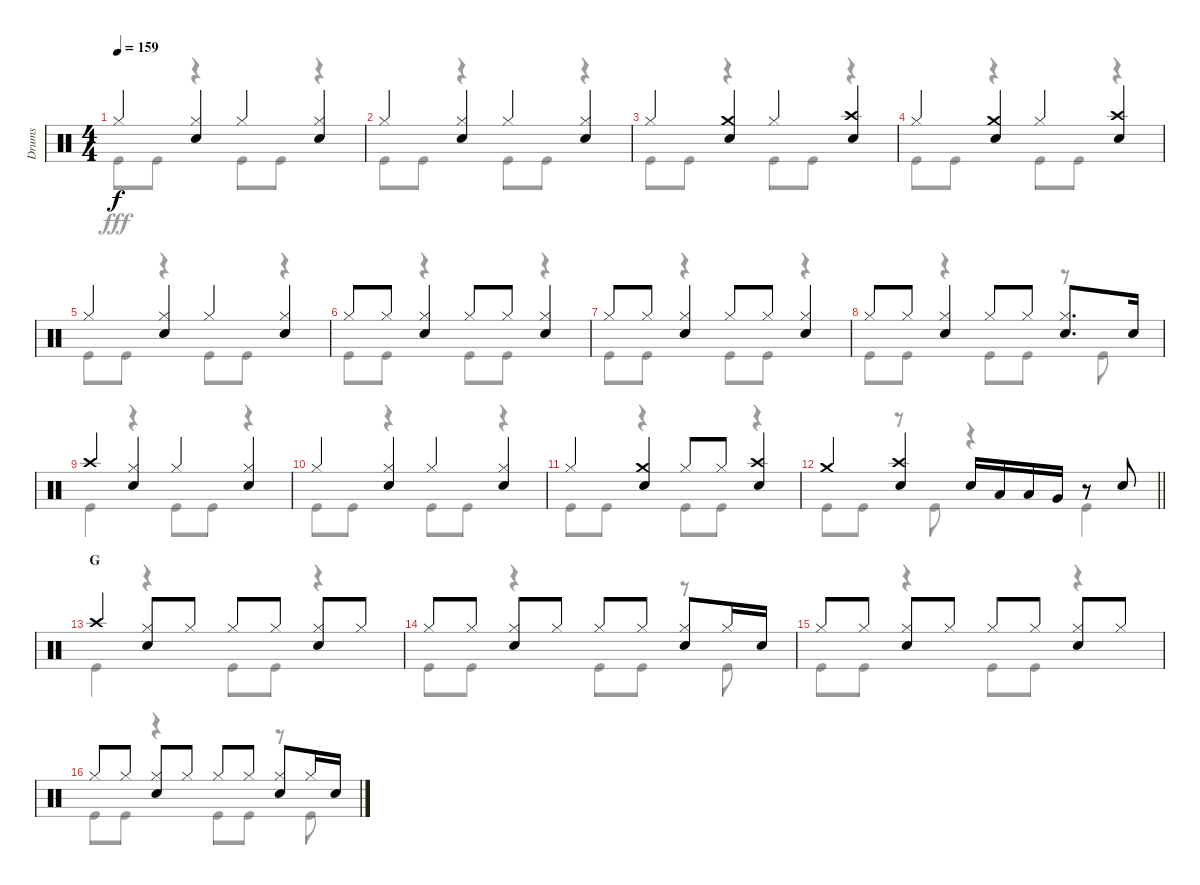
\track ("Drums" "Drums") {instrument percussion}
\staff {score}
\articulation defaults
\voice
\ts (4 4)
\tempo 159
\clef neutral
\ks c "Hi-Hat (closed)".4{dy f}
("Hi-Hat (closed)" "Snare (hit) 2").4 "Hi-Hat (closed)".4 ("Hi-Hat (closed)" "Snare (hit) 2").4 |
"Hi-Hat (closed)".4 ("Hi-Hat (closed)" "Snare (hit) 2").4 "Hi-Hat (closed)".4 ("Hi-Hat (closed)" "Snare (hit) 2").4 |
"Hi-Hat (closed)".4 ("Crash medium (hit)" "Snare (hit) 2").4 "Hi-Hat (closed)".4 ("Crash high (hit)" "Snare (hit) 2").4 |
"Hi-Hat (closed)".4 ("Crash medium (hit)" "Snare (hit) 2").4 "Hi-Hat (closed)".4 ("Crash high (hit)" "Snare (hit) 2").4 |
"Hi-Hat (closed)".4 ("Hi-Hat (closed)" "Snare (hit) 2").4 "Hi-Hat (closed)".4 ("Hi-Hat (closed)" "Snare (hit) 2").4 |
"Hi-Hat (closed)".8 "Hi-Hat (closed)".8 ("Hi-Hat (closed)" "Snare (hit) 2").4 "Hi-Hat (closed)".8 "Hi-Hat (closed)".8 ("Hi-Hat (closed)" "Snare (hit) 2").4 |
"Hi-Hat (closed)".8 "Hi-Hat (closed)".8 ("Hi-Hat (closed)" "Snare (hit) 2").4 "Hi-Hat (closed)".8 "Hi-Hat (closed)".8 ("Hi-Hat (closed)" "Snare (hit) 2").4 |
"Hi-Hat (closed)".8 "Hi-Hat (closed)".8 ("Hi-Hat (closed)" "Snare (hit) 2").4 "Hi-Hat (closed)".8 "Hi-Hat (closed)".8 ("Hi-Hat (closed)" "Snare (hit) 2").8{d} "Snare (hit) 2".16 |
"Crash high (hit)".4 ("Hi-Hat (closed)" "Snare (hit) 2").4 "Hi-Hat (closed)".4 ("Hi-Hat (closed)" "Snare (hit) 2").4 |
"Hi-Hat (closed)".4 ("Hi-Hat (closed)" "Snare (hit) 2").4 "Hi-Hat (closed)".4 ("Hi-Hat (closed)" "Snare (hit) 2").4 |
"Hi-Hat (closed)".4 ("Crash medium (hit)" "Snare (hit) 2").4 "Hi-Hat (closed)".8 "Hi-Hat (closed)".8 ("Crash high (hit)" "Snare (hit) 2").4 |
\barLineRight lightlight "Crash medium (hit)".4
("Crash high (hit)" "Snare (hit) 2").4 "Snare (hit) 2".16 "Low Tom (hit)".16 "Low Tom (hit)".16 "Very Low Tom (hit)".16 r.8 "Snare (hit) 2".8 |
\section ("" "G")
"Crash high (hit)".4 ("Hi-Hat (closed)" "Snare (hit) 2").8 "Hi-Hat (closed)".8 "Hi-Hat (closed)".8 "Hi-Hat (closed)".8 ("Hi-Hat (closed)" "Snare (hit) 2").8 "Hi-Hat (closed)".8 |
"Hi-Hat (closed)".8 "Hi-Hat (closed)".8 ("Hi-Hat (closed)" "Snare (hit) 2").8 "Hi-Hat (closed)".8 "Hi-Hat (closed)".8 "Hi-Hat (closed)".8 ("Hi-Hat (closed)" "Snare (hit) 2").8 "Hi-Hat (closed)".16 "Snare (hit) 2".16 |
"Hi-Hat (closed)".8 "Hi-Hat (closed)".8 ("Hi-Hat (closed)" "Snare (hit) 2").8 "Hi-Hat (closed)".8 "Hi-Hat (closed)".8 "Hi-Hat (closed)".8 ("Hi-Hat (closed)" "Snare (hit) 2").8 "Hi-Hat (closed)".8 |
"Hi-Hat (closed)".8 "Hi-Hat (closed)".8 ("Hi-Hat (closed)" "Snare (hit) 2").8 "Hi-Hat (closed)".8 "Hi-Hat (closed)".8 "Hi-Hat (closed)".8 ("Hi-Hat (closed)" "Snare (hit) 2").8 "Hi-Hat (closed)".16 "Snare (hit) 2".16
\voice
\clef neutral
\ottava regular
\simile none
\ks c "Kick (hit)".8{dy fff} "Kick (hit)".8
r.4 "Kick (hit)".8 "Kick (hit)".8 r.4 |
"Kick (hit)".8 "Kick (hit)".8 r.4 "Kick (hit)".8 "Kick (hit)".8 r.4 |
"Kick (hit)".8 "Kick (hit)".8 r.4 "Kick (hit)".8 "Kick (hit)".8 r.4 |
"Kick (hit)".8 "Kick (hit)".8 r.4 "Kick (hit)".8 "Kick (hit)".8 r.4 |
"Kick (hit)".8 "Kick (hit)".8 r.4 "Kick (hit)".8 "Kick (hit)".8 r.4 |
"Kick (hit)".8 "Kick (hit)".8 r.4 "Kick (hit)".8 "Kick (hit)".8 r.4 |
"Kick (hit)".8 "Kick (hit)".8 r.4 "Kick (hit)".8 "Kick (hit)".8 r.4 |
"Kick (hit)".8 "Kick (hit)".8 r.4 "Kick (hit)".8 "Kick (hit)".8 r.8 "Kick (hit)".8 |
"Kick (hit)".4 r.4 "Kick (hit)".8 "Kick (hit)".8 r.4 |
"Kick (hit)".8 "Kick (hit)".8 r.4 "Kick (hit)".8 "Kick (hit)".8 r.4 |
"Kick (hit)".8 "Kick (hit)".8 r.4 "Kick (hit)".8 "Kick (hit)".8 r.4 |
\barLineRight lightlight "Kick (hit)".8 "Kick (hit)".8
r.8 "Kick (hit)".8 r.4 "Kick (hit)".4 |
"Kick (hit)".4 r.4 "Kick (hit)".8 "Kick (hit)".8 r.4 |
"Kick (hit)".8 "Kick (hit)".8 r.4 "Kick (hit)".8 "Kick (hit)".8 r.8 "Kick (hit)".8 |
"Kick (hit)".8 "Kick (hit)".8 r.4 "Kick (hit)".8 "Kick (hit)".8 r.4 |
"Kick (hit)".8 "Kick (hit)".8 r.4 "Kick (hit)".8 "Kick (hit)".8 r.8 "Kick (hit)".8
